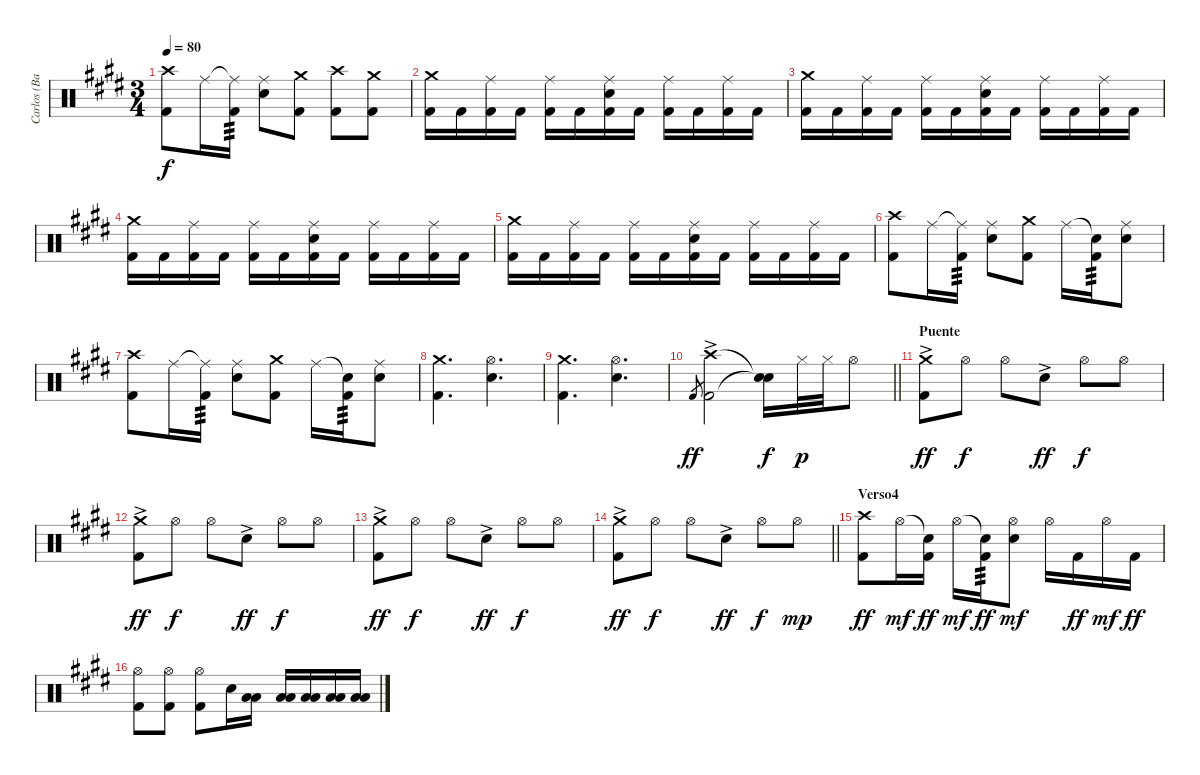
\track ("Carlos (Batería)" "Carlos (Ba") {instrument percussion}
\staff
\articulation defaults
\ts (3 4)
\tempo 80
\clef neutral
\ks c#minor
("Crash high (hit)" "Kick (hit) 2").8{dy f} "Ride (middle)".16 ("Ride (middle)"{t} "Kick (hit) 2").16{tp 3} ("Ride (middle)" "Snare (hit) 2").8 ("Crash medium (hit)" "Kick (hit) 2").8 ("Crash high (hit)" "Kick (hit) 2").8 ("Crash medium (hit)" "Kick (hit) 2").8 |
("Crash medium (hit)" "Kick (hit) 2").16 "Kick (hit) 2".16 ("Ride (middle)" "Kick (hit) 2").16 "Kick (hit) 2".16 ("Ride (middle)" "Kick (hit) 2").16 "Kick (hit) 2".16 ("Ride (middle)" "Snare (hit) 2" "Kick (hit) 2").16 "Kick (hit) 2".16 ("Ride (middle)" "Kick (hit) 2").16 "Kick (hit) 2".16 ("Ride (middle)" "Kick (hit) 2").16 "Kick (hit) 2".16 |
("Crash medium (hit)" "Kick (hit) 2").16 "Kick (hit) 2".16 ("Ride (middle)" "Kick (hit) 2").16 "Kick (hit) 2".16 ("Ride (middle)" "Kick (hit) 2").16 "Kick (hit) 2".16 ("Ride (middle)" "Snare (hit) 2" "Kick (hit) 2").16 "Kick (hit) 2".16 ("Ride (middle)" "Kick (hit) 2").16 "Kick (hit) 2".16 ("Ride (middle)" "Kick (hit) 2").16 "Kick (hit) 2".16 |
("Crash medium (hit)" "Kick (hit) 2").16 "Kick (hit) 2".16 ("Ride (middle)" "Kick (hit) 2").16 "Kick (hit) 2".16 ("Ride (middle)" "Kick (hit) 2").16 "Kick (hit) 2".16 ("Ride (middle)" "Snare (hit) 2" "Kick (hit) 2").16 "Kick (hit) 2".16 ("Ride (middle)" "Kick (hit) 2").16 "Kick (hit) 2".16 ("Ride (middle)" "Kick (hit) 2").16 "Kick (hit) 2".16 |
("Crash medium (hit)" "Kick (hit) 2").16 "Kick (hit) 2".16 ("Ride (middle)" "Kick (hit) 2").16 "Kick (hit) 2".16 ("Ride (middle)" "Kick (hit) 2").16 "Kick (hit) 2".16 ("Ride (middle)" "Snare (hit) 2" "Kick (hit) 2").16 "Kick (hit) 2".16 ("Ride (middle)" "Kick (hit) 2").16 "Kick (hit) 2".16 ("Ride (middle)" "Kick (hit) 2").16 "Kick (hit) 2".16 |
("Crash high (hit)" "Kick (hit) 2").8 "Ride (middle)".16 ("Ride (middle)"{t} "Kick (hit) 2").16{tp 3} ("Ride (middle)" "Snare (hit) 2").8 ("Crash medium (hit)" "Kick (hit) 2").8 "Ride (middle)".16 ("Snare (hit)"{t} "Kick (hit) 2").16{tp 3} ("Ride (middle)" "Snare (hit) 2").8 |
("Crash high (hit)" "Kick (hit) 2").8 "Ride (middle)".16 ("Ride (middle)"{t} "Kick (hit) 2").16{tp 3} ("Ride (middle)" "Snare (hit) 2").8 ("Crash medium (hit)" "Kick (hit) 2").8 "Ride (middle)".16 ("Snare (hit)"{t} "Kick (hit) 2").16{tp 3} ("Ride (middle)" "Snare (hit) 2").8 |
("Crash medium (hit)" "Kick (hit) 2").4{d} ("Hi-Hat (open)" "Snare (hit) 2").4{d} |
("Crash medium (hit)" "Kick (hit) 2").4{d} ("Hi-Hat (open)" "Snare (hit) 2").4{d} |
\barLineRight lightlight "Kick (hit) 2".8{gr dy ff}
("Crash high (hit)" "Kick (hit) 2"{ac}).2 ("Snare (hit)"{t} "Snare (hit)"{t}).16{dy f} "Hi-Hat (closed)".32{dy p} "Hi-Hat (closed)".32 "Hi-Hat (open)".8 |
\section ("" "Puente")
("Crash medium (hit)" "Kick (hit) 2"{ac}).8{dy ff} "Hi-Hat (open)".8{dy f} "Hi-Hat (open)".8 "Snare (hit) 2"{ac}.8{dy ff} "Hi-Hat (open)".8{dy f} "Hi-Hat (open)".8 |
("Crash medium (hit)" "Kick (hit) 2"{ac}).8{dy ff} "Hi-Hat (open)".8{dy f} "Hi-Hat (open)".8 "Snare (hit) 2"{ac}.8{dy ff} "Hi-Hat (open)".8{dy f} "Hi-Hat (open)".8 |
("Crash medium (hit)" "Kick (hit) 2"{ac}).8{dy ff} "Hi-Hat (open)".8{dy f} "Hi-Hat (open)".8 "Snare (hit) 2"{ac}.8{dy ff} "Hi-Hat (open)".8{dy f} "Hi-Hat (open)".8 |
\barLineRight lightlight
("Crash medium (hit)" "Kick (hit) 2"{ac}).8{dy ff} "Hi-Hat (open)".8{dy f} "Hi-Hat (open)".8 "Snare (hit) 2"{ac}.8{dy ff} "Hi-Hat (open)".8{dy f} "Hi-Hat (open)".8{dy mp} |
\section ("" "Verso4")
("Crash high (hit)" "Kick (hit) 2").8{dy ff} "Hi-Hat (open)".16{dy mf} ("Snare (hit)"{t} "Kick (hit) 2").16{dy ff} "Hi-Hat (open)".16{dy mf} ("Snare (hit)"{t} "Kick (hit) 2").16{tp 3 dy ff} ("Hi-Hat (open)" "Snare (hit) 2").8{dy mf} "Hi-Hat (open)".16 "Kick (hit) 2".16{dy ff} "Hi-Hat (open)".16{dy mf} "Kick (hit) 2".16{dy ff} |
("Hi-Hat (open)" "Kick (hit) 2").8 ("Hi-Hat (open)" "Kick (hit) 2").8 ("Hi-Hat (open)" "Kick (hit) 2").8 "Snare (hit) 2".16 ("Low Floor Tom (hit)" "Low Tom (hit)").16 ("Low Floor Tom (hit)" "Low Tom (hit)").16 ("Low Floor Tom (hit)" "Low Tom (hit)").16 ("Low Floor Tom (hit)" "Low Tom (hit)").16 ("Low Floor Tom (hit)" "Low Tom (hit)").16
